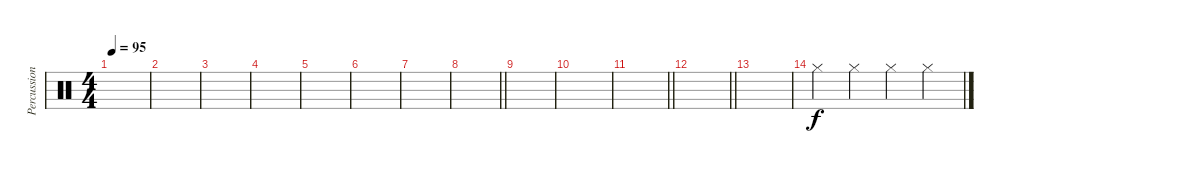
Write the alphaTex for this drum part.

\track ("Percussion" "Percussion") {instrument percussion}
\staff {score}
\articulation defaults
\ts (4 4)
\tempo 95
\clef neutral
\ks c
|
|
|
|
|
|
|
\barLineRight lightlight
|
|
|
\barLineRight lightlight
|
\section ("" "")
\barLineRight lightlight
|
\section ("" "")
|
"Hi-Hat (closed)".4 "Hi-Hat (closed)".4 "Hi-Hat (closed)".4 "Hi-Hat (closed)".4
